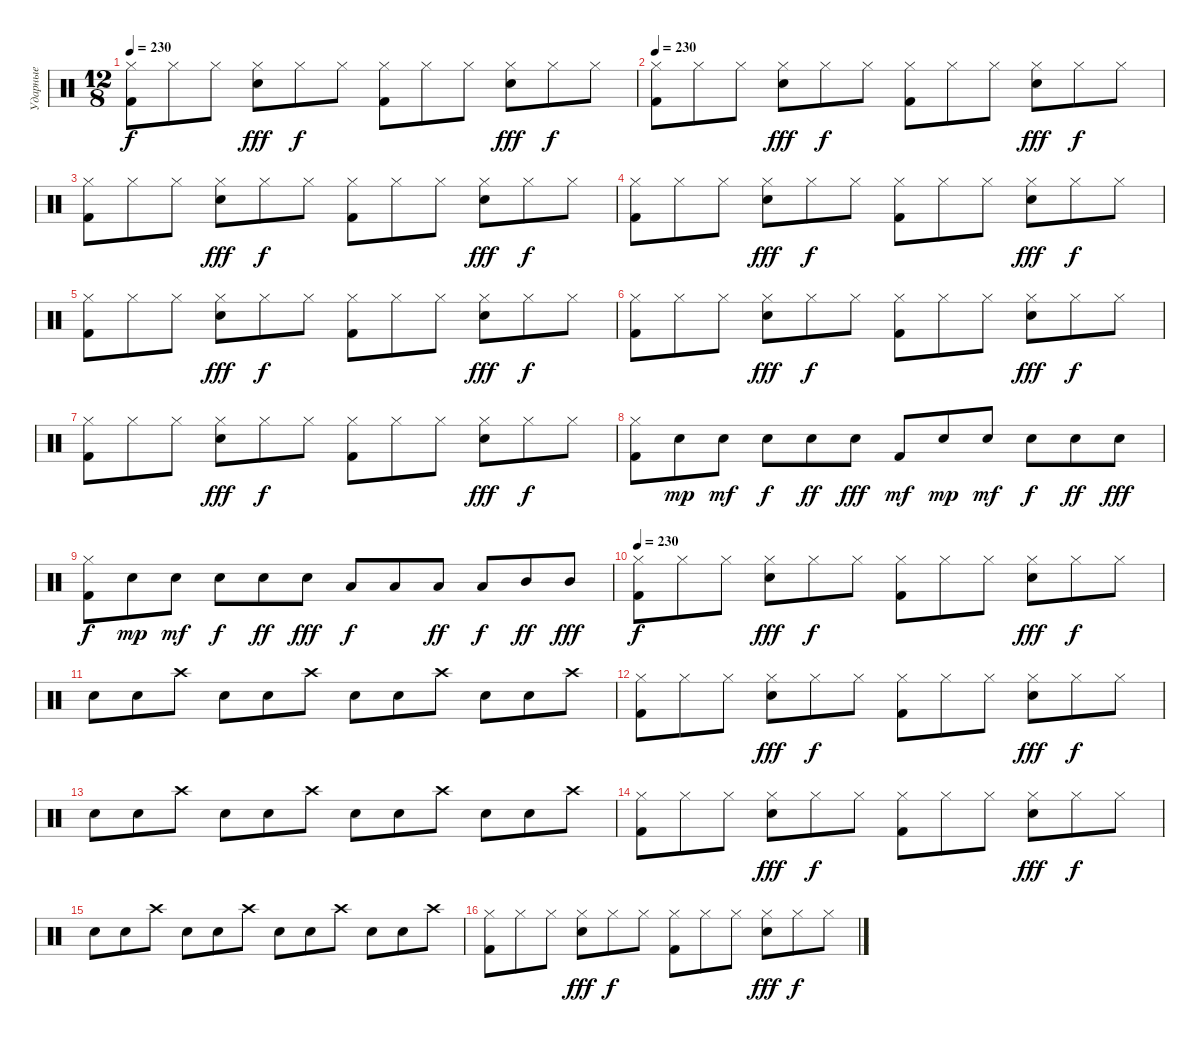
\track ("Ударные" "Ударные") {instrument percussion}
\staff {score}
\articulation defaults
\ts (12 8)
\tempo 230
\clef neutral
\ks c
("Hi-Hat (closed)" "Kick (hit) 2").8{dy f} "Hi-Hat (closed)".8 "Hi-Hat (closed)".8 ("Hi-Hat (closed)" "Snare (hit) 2").8{dy fff} "Hi-Hat (closed)".8{dy f} "Hi-Hat (closed)".8 ("Hi-Hat (closed)" "Kick (hit) 2").8 "Hi-Hat (closed)".8 "Hi-Hat (closed)".8 ("Hi-Hat (closed)" "Snare (hit) 2").8{dy fff} "Hi-Hat (closed)".8{dy f} "Hi-Hat (closed)".8 |
\tempo 230
("Hi-Hat (closed)" "Kick (hit) 2").8 "Hi-Hat (closed)".8 "Hi-Hat (closed)".8 ("Hi-Hat (closed)" "Snare (hit) 2").8{dy fff} "Hi-Hat (closed)".8{dy f} "Hi-Hat (closed)".8 ("Hi-Hat (closed)" "Kick (hit) 2").8 "Hi-Hat (closed)".8 "Hi-Hat (closed)".8 ("Hi-Hat (closed)" "Snare (hit) 2").8{dy fff} "Hi-Hat (closed)".8{dy f} "Hi-Hat (closed)".8 |
("Hi-Hat (closed)" "Kick (hit) 2").8 "Hi-Hat (closed)".8 "Hi-Hat (closed)".8 ("Hi-Hat (closed)" "Snare (hit) 2").8{dy fff} "Hi-Hat (closed)".8{dy f} "Hi-Hat (closed)".8 ("Hi-Hat (closed)" "Kick (hit) 2").8 "Hi-Hat (closed)".8 "Hi-Hat (closed)".8 ("Hi-Hat (closed)" "Snare (hit) 2").8{dy fff} "Hi-Hat (closed)".8{dy f} "Hi-Hat (closed)".8 |
("Hi-Hat (closed)" "Kick (hit) 2").8 "Hi-Hat (closed)".8 "Hi-Hat (closed)".8 ("Hi-Hat (closed)" "Snare (hit) 2").8{dy fff} "Hi-Hat (closed)".8{dy f} "Hi-Hat (closed)".8 ("Hi-Hat (closed)" "Kick (hit) 2").8 "Hi-Hat (closed)".8 "Hi-Hat (closed)".8 ("Hi-Hat (closed)" "Snare (hit) 2").8{dy fff} "Hi-Hat (closed)".8{dy f} "Hi-Hat (closed)".8 |
("Hi-Hat (closed)" "Kick (hit) 2").8 "Hi-Hat (closed)".8 "Hi-Hat (closed)".8 ("Hi-Hat (closed)" "Snare (hit) 2").8{dy fff} "Hi-Hat (closed)".8{dy f} "Hi-Hat (closed)".8 ("Hi-Hat (closed)" "Kick (hit) 2").8 "Hi-Hat (closed)".8 "Hi-Hat (closed)".8 ("Hi-Hat (closed)" "Snare (hit) 2").8{dy fff} "Hi-Hat (closed)".8{dy f} "Hi-Hat (closed)".8 |
("Hi-Hat (closed)" "Kick (hit) 2").8 "Hi-Hat (closed)".8 "Hi-Hat (closed)".8 ("Hi-Hat (closed)" "Snare (hit) 2").8{dy fff} "Hi-Hat (closed)".8{dy f} "Hi-Hat (closed)".8 ("Hi-Hat (closed)" "Kick (hit) 2").8 "Hi-Hat (closed)".8 "Hi-Hat (closed)".8 ("Hi-Hat (closed)" "Snare (hit) 2").8{dy fff} "Hi-Hat (closed)".8{dy f} "Hi-Hat (closed)".8 |
("Hi-Hat (closed)" "Kick (hit) 2").8 "Hi-Hat (closed)".8 "Hi-Hat (closed)".8 ("Hi-Hat (closed)" "Snare (hit) 2").8{dy fff} "Hi-Hat (closed)".8{dy f} "Hi-Hat (closed)".8 ("Hi-Hat (closed)" "Kick (hit) 2").8 "Hi-Hat (closed)".8 "Hi-Hat (closed)".8 ("Hi-Hat (closed)" "Snare (hit) 2").8{dy fff} "Hi-Hat (closed)".8{dy f} "Hi-Hat (closed)".8 |
("Hi-Hat (closed)" "Kick (hit) 2").8 "Snare (hit) 2".8{dy mp} "Snare (hit) 2".8{dy mf} "Snare (hit) 2".8{dy f} "Snare (hit) 2".8{dy ff} "Snare (hit) 2".8{dy fff} "Kick (hit) 2".8{dy mf} "Snare (hit) 2".8{dy mp} "Snare (hit) 2".8{dy mf} "Snare (hit) 2".8{dy f} "Snare (hit) 2".8{dy ff} "Snare (hit) 2".8{dy fff} |
("Hi-Hat (closed)" "Kick (hit) 2").8{dy f} "Snare (hit) 2".8{dy mp} "Snare (hit) 2".8{dy mf} "Snare (hit) 2".8{dy f} "Snare (hit) 2".8{dy ff} "Snare (hit) 2".8{dy fff} "Low Floor Tom (hit)".8{dy f} "Low Floor Tom (hit)".8 "Low Tom (hit)".8{dy ff} "Low Tom (hit)".8{dy f} "Mid Tom (hit)".8{dy ff} "Mid Tom (hit)".8{dy fff} |
\tempo 230
("Hi-Hat (closed)" "Kick (hit) 2").8{dy f} "Hi-Hat (closed)".8 "Hi-Hat (closed)".8 ("Hi-Hat (closed)" "Snare (hit) 2").8{dy fff} "Hi-Hat (closed)".8{dy f} "Hi-Hat (closed)".8 ("Hi-Hat (closed)" "Kick (hit) 2").8 "Hi-Hat (closed)".8 "Hi-Hat (closed)".8 ("Hi-Hat (closed)" "Snare (hit) 2").8{dy fff} "Hi-Hat (closed)".8{dy f} "Hi-Hat (closed)".8 |
"Snare (hit) 2".8 "Snare (hit) 2".8 "Crash high (hit)".8 "Snare (hit) 2".8 "Snare (hit) 2".8 "Crash high (hit)".8 "Snare (hit) 2".8 "Snare (hit) 2".8 "Crash high (hit)".8 "Snare (hit) 2".8 "Snare (hit) 2".8 "Crash high (hit)".8 |
("Hi-Hat (closed)" "Kick (hit) 2").8 "Hi-Hat (closed)".8 "Hi-Hat (closed)".8 ("Hi-Hat (closed)" "Snare (hit) 2").8{dy fff} "Hi-Hat (closed)".8{dy f} "Hi-Hat (closed)".8 ("Hi-Hat (closed)" "Kick (hit) 2").8 "Hi-Hat (closed)".8 "Hi-Hat (closed)".8 ("Hi-Hat (closed)" "Snare (hit) 2").8{dy fff} "Hi-Hat (closed)".8{dy f} "Hi-Hat (closed)".8 |
"Snare (hit) 2".8 "Snare (hit) 2".8 "Crash high (hit)".8 "Snare (hit) 2".8 "Snare (hit) 2".8 "Crash high (hit)".8 "Snare (hit) 2".8 "Snare (hit) 2".8 "Crash high (hit)".8 "Snare (hit) 2".8 "Snare (hit) 2".8 "Crash high (hit)".8 |
("Hi-Hat (closed)" "Kick (hit) 2").8 "Hi-Hat (closed)".8 "Hi-Hat (closed)".8 ("Hi-Hat (closed)" "Snare (hit) 2").8{dy fff} "Hi-Hat (closed)".8{dy f} "Hi-Hat (closed)".8 ("Hi-Hat (closed)" "Kick (hit) 2").8 "Hi-Hat (closed)".8 "Hi-Hat (closed)".8 ("Hi-Hat (closed)" "Snare (hit) 2").8{dy fff} "Hi-Hat (closed)".8{dy f} "Hi-Hat (closed)".8 |
"Snare (hit) 2".8 "Snare (hit) 2".8 "Crash high (hit)".8 "Snare (hit) 2".8 "Snare (hit) 2".8 "Crash high (hit)".8 "Snare (hit) 2".8 "Snare (hit) 2".8 "Crash high (hit)".8 "Snare (hit) 2".8 "Snare (hit) 2".8 "Crash high (hit)".8 |
("Hi-Hat (closed)" "Kick (hit) 2").8 "Hi-Hat (closed)".8 "Hi-Hat (closed)".8 ("Hi-Hat (closed)" "Snare (hit) 2").8{dy fff} "Hi-Hat (closed)".8{dy f} "Hi-Hat (closed)".8 ("Hi-Hat (closed)" "Kick (hit) 2").8 "Hi-Hat (closed)".8 "Hi-Hat (closed)".8 ("Hi-Hat (closed)" "Snare (hit) 2").8{dy fff} "Hi-Hat (closed)".8{dy f} "Hi-Hat (closed)".8
